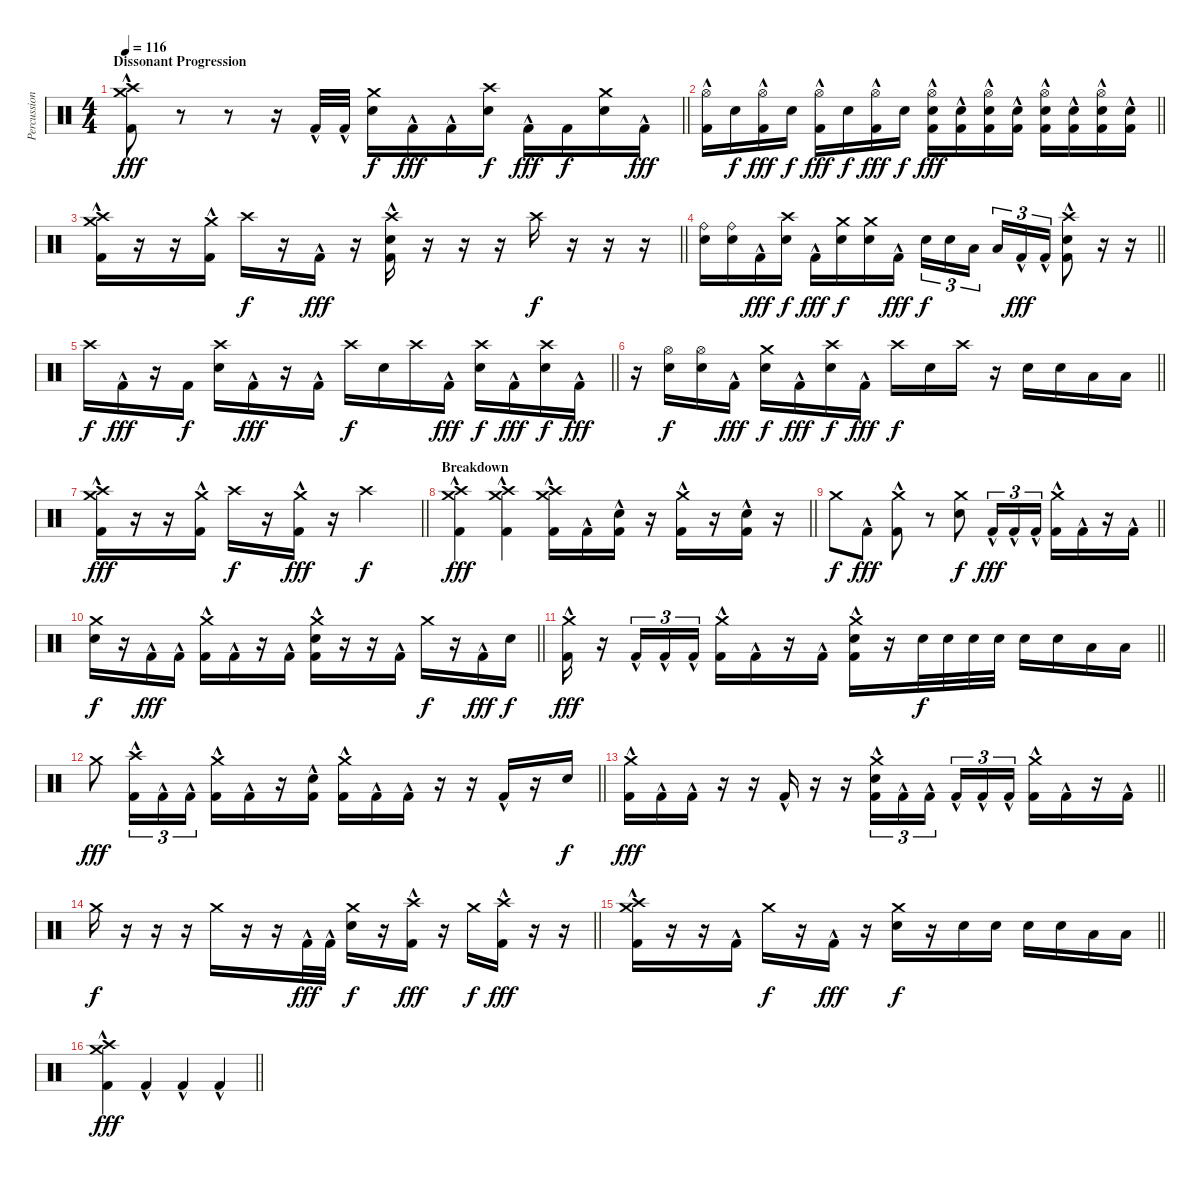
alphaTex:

\track ("Percussion" "Percussion") {instrument percussion}
\staff {score}
\articulation defaults
\ts (4 4)
\section ("" "Dissonant Progression")
\tempo 116
\clef neutral
\barLineRight lightlight
\ks c
("Crash high (hit)" "Crash medium (hit)" "Kick (hit) 2"{hac}).8{dy fff} r.8 r.8 r.16 "Kick (hit) 2"{hac}.32 "Kick (hit) 2"{hac}.32 ("Crash medium (hit)" "Electric Snare (hit)").16{dy f} "Kick (hit) 2"{hac}.16{dy fff} "Kick (hit) 2"{hac}.16 ("Crash high (hit)" "Electric Snare (hit)").16{dy f} "Kick (hit) 2"{hac}.16{dy fff} "Kick (hit) 2".16{dy f} ("Crash medium (hit)" "Electric Snare (hit)").16 "Kick (hit) 2"{hac}.16{dy fff} |
\barLineRight lightlight
("Hi-Hat (open)" "Kick (hit) 2"{hac}).16 "Electric Snare (hit)".16{dy f} ("Hi-Hat (open)" "Kick (hit) 2"{hac}).16{dy fff} "Electric Snare (hit)".16{dy f} ("Hi-Hat (open)" "Kick (hit) 2"{hac}).16{dy fff} "Electric Snare (hit)".16{dy f} ("Hi-Hat (open)" "Kick (hit) 2"{hac}).16{dy fff} "Electric Snare (hit)".16{dy f} ("Hi-Hat (open)" "Electric Snare (hit)" "Kick (hit) 2"{hac}).16{dy fff} ("Electric Snare (hit)" "Kick (hit) 2"{hac}).16 ("Hi-Hat (open)" "Electric Snare (hit)" "Kick (hit) 2"{hac}).16 ("Electric Snare (hit)" "Kick (hit) 2"{hac}).16 ("Hi-Hat (open)" "Electric Snare (hit)" "Kick (hit) 2"{hac}).16 ("Electric Snare (hit)" "Kick (hit) 2"{hac}).16 ("Hi-Hat (open)" "Electric Snare (hit)" "Kick (hit) 2"{hac}).16 ("Electric Snare (hit)" "Kick (hit) 2"{hac}).16 |
\barLineRight lightlight
("Crash medium (hit)" "Crash high (hit)" "Kick (hit) 2"{hac}).16 r.16 r.16 ("Crash medium (hit)" "Kick (hit) 2"{hac}).16 "Crash high (hit)".16{dy f} r.16 "Kick (hit) 2"{hac}.16{dy fff} r.16 ("Electric Snare (hit)" "Crash high (hit)" "Kick (hit) 2"{hac}).16 r.16 r.16 r.16 "Crash high (hit)".16{dy f} r.16 r.16 r.16 |
\barLineRight lightlight
("Ride (bell)" "Electric Snare (hit)").16 ("Ride (bell)" "Electric Snare (hit)").16 "Kick (hit) 2"{hac}.16{dy fff} ("Crash high (hit)" "Electric Snare (hit)").16{dy f} "Kick (hit) 2"{hac}.16{dy fff} ("Crash medium (hit)" "Electric Snare (hit)").16{dy f} ("Crash medium (hit)" "Electric Snare (hit)").16 "Kick (hit) 2"{hac}.16{dy fff} "Electric Snare (hit)".16{tu (3 2) dy f} "Electric Snare (hit)".16{tu (3 2)} "Low Tom (hit)".16{tu (3 2) beam splitsecondary} "Low Tom (hit)".16{tu (3 2)} "Kick (hit) 2"{hac}.16{tu (3 2) dy fff} "Kick (hit) 2"{hac}.16{tu (3 2)} ("Crash high (hit)" "Electric Snare (hit)" "Kick (hit) 2"{hac}).8 r.16 r.16 |
\barLineRight lightlight "Crash high (hit)".16{dy f} "Kick (hit) 2"{hac}.16{dy fff}
r.16 "Kick (hit) 2".16{dy f} ("Crash high (hit)" "Electric Snare (hit)").16 "Kick (hit) 2"{hac}.16{dy fff} r.16 "Kick (hit) 2"{hac}.16 "Crash high (hit)".16{dy f} "Electric Snare (hit)".16 "Crash high (hit)".16 "Kick (hit) 2"{hac}.16{dy fff} ("Crash high (hit)" "Electric Snare (hit)").16{dy f} "Kick (hit) 2"{hac}.16{dy fff} ("Crash high (hit)" "Electric Snare (hit)").16{dy f} "Kick (hit) 2"{hac}.16{dy fff} |
\barLineRight lightlight
r.16 ("Hi-Hat (open)" "Electric Snare (hit)").16{dy f} ("Hi-Hat (open)" "Electric Snare (hit)").16 "Kick (hit) 2"{hac}.16{dy fff} ("Crash medium (hit)" "Electric Snare (hit)").16{dy f} "Kick (hit) 2"{hac}.16{dy fff} ("Crash high (hit)" "Electric Snare (hit)").16{dy f} "Kick (hit) 2"{hac}.16{dy fff} "Crash high (hit)".16{dy f} "Electric Snare (hit)".16 "Crash high (hit)".16 r.16 "Electric Snare (hit)".16 "Electric Snare (hit)".16 "Low Tom (hit)".16 "Low Tom (hit)".16 |
\barLineRight lightlight
("Crash high (hit)" "Crash medium (hit)" "Kick (hit) 2"{hac}).16{dy fff} r.16 r.16 ("Crash medium (hit)" "Kick (hit) 2"{hac}).16 "Crash high (hit)".16{dy f} r.16 ("Crash medium (hit)" "Kick (hit) 2"{hac}).16{dy fff} r.16 "Crash high (hit)".2{dy f} |
\section ("" "Breakdown")
\barLineRight lightlight
("Kick (hit) 2"{hac} "Crash high (hit)" "Crash medium (hit)").4{dy fff} ("Kick (hit) 2"{hac} "Crash high (hit)" "Crash medium (hit)").4 ("Kick (hit) 2"{hac} "Crash high (hit)" "Crash medium (hit)").16 "Kick (hit) 2"{hac}.16 ("Kick (hit) 2"{hac} "Electric Snare (hit)").16 r.16 ("Kick (hit) 2"{hac} "Crash medium (hit)").16 r.16 ("Kick (hit) 2"{hac} "Electric Snare (hit)").16 r.16 |
\barLineRight lightlight "Crash medium (hit)".8{dy f} "Kick (hit) 2"{hac}.8{dy fff}
("Kick (hit) 2"{hac} "Crash medium (hit)").8 r.8 ("Crash medium (hit)" "Electric Snare (hit)").8{dy f} "Kick (hit) 2"{hac}.16{tu (3 2) dy fff} "Kick (hit) 2"{hac}.16{tu (3 2)} "Kick (hit) 2"{hac}.16{tu (3 2)} ("Kick (hit) 2"{hac} "Crash medium (hit)").16 "Kick (hit) 2"{hac}.16 r.16 "Kick (hit) 2"{hac}.16 |
\barLineRight lightlight
("Electric Snare (hit)" "Crash medium (hit)").16{dy f} r.16 "Kick (hit) 2"{hac}.16{dy fff} "Kick (hit) 2"{hac}.16 ("Kick (hit) 2"{hac} "Crash medium (hit)").16 "Kick (hit) 2"{hac}.16 r.16 "Kick (hit) 2"{hac}.16 ("Kick (hit) 2"{hac} "Crash medium (hit)" "Electric Snare (hit)").16 r.16 r.16 "Kick (hit) 2"{hac}.16 "Crash medium (hit)".16{dy f} r.16 "Kick (hit) 2"{hac}.16{dy fff} "Electric Snare (hit)".16{dy f} |
\barLineRight lightlight
("Crash medium (hit)" "Kick (hit) 2"{hac}).16{dy fff} r.16 "Kick (hit) 2"{hac}.16{tu (3 2)} "Kick (hit) 2"{hac}.16{tu (3 2)} "Kick (hit) 2"{hac}.16{tu (3 2)} ("Crash medium (hit)" "Kick (hit) 2"{hac}).16 "Kick (hit) 2"{hac}.16 r.16 "Kick (hit) 2"{hac}.16 ("Crash medium (hit)" "Electric Snare (hit)" "Kick (hit) 2"{hac}).16 r.16 "Electric Snare (hit)".32{dy f} "Electric Snare (hit)".32 "Electric Snare (hit)".32 "Electric Snare (hit)".32 "Electric Snare (hit)".16 "Electric Snare (hit)".16 "Low Tom (hit)".16 "Low Tom (hit)".16 |
\barLineRight lightlight "Crash medium (hit)".8{dy fff}
("Crash high (hit)" "Kick (hit) 2"{hac}).16{tu (3 2)} "Kick (hit) 2"{hac}.16{tu (3 2)} "Kick (hit) 2"{hac}.16{tu (3 2)} ("Crash medium (hit)" "Kick (hit) 2"{hac}).16 "Kick (hit) 2"{hac}.16 r.16 ("Electric Snare (hit)" "Kick (hit) 2"{hac}).16 ("Crash medium (hit)" "Kick (hit) 2"{hac}).16 "Kick (hit) 2"{hac}.16 "Kick (hit) 2"{hac}.16 r.16 r.16 "Kick (hit) 2"{hac}.16 r.16 "Electric Snare (hit)".16{dy f} |
\barLineRight lightlight
("Crash medium (hit)" "Kick (hit) 2"{hac}).16{dy fff} "Kick (hit) 2"{hac}.16 "Kick (hit) 2"{hac}.16 r.16 r.16 "Kick (hit) 2"{hac}.16 r.16 r.16 ("Crash medium (hit)" "Electric Snare (hit)" "Kick (hit) 2"{hac}).16{tu (3 2)} "Kick (hit) 2"{hac}.16{tu (3 2)} "Kick (hit) 2"{hac}.16{tu (3 2) beam splitsecondary} "Kick (hit) 2"{hac}.16{tu (3 2)} "Kick (hit) 2"{hac}.16{tu (3 2)} "Kick (hit) 2"{hac}.16{tu (3 2)} ("Crash medium (hit)" "Kick (hit) 2"{hac}).16 "Kick (hit) 2"{hac}.16 r.16 "Kick (hit) 2"{hac}.16 |
\barLineRight lightlight "Crash medium (hit)".16{dy f}
r.16 r.16 r.16 "Crash medium (hit)".16 r.16 r.16 "Kick (hit) 2"{hac}.32{dy fff} "Kick (hit) 2"{hac}.32 ("Electric Snare (hit)" "Crash medium (hit)").16{dy f} r.16 ("Crash high (hit)" "Kick (hit) 2"{hac}).16{dy fff} r.16 "Crash medium (hit)".16{dy f} ("Crash high (hit)" "Kick (hit) 2"{hac}).16{dy fff} r.16 r.16 |
\barLineRight lightlight
("Crash medium (hit)" "Crash high (hit)" "Kick (hit) 2"{hac}).16 r.16 r.16 "Kick (hit) 2"{hac}.16 "Crash medium (hit)".16{dy f} r.16 "Kick (hit) 2"{hac}.16{dy fff} r.16 ("Crash medium (hit)" "Electric Snare (hit)").16{dy f} r.16 "Electric Snare (hit)".16 "Electric Snare (hit)".16 "Electric Snare (hit)".16 "Electric Snare (hit)".16 "Low Tom (hit)".16 "Low Tom (hit)".16 |
\barLineRight lightlight
("Kick (hit) 2"{hac} "Crash high (hit)" "Crash medium (hit)").4{dy fff} "Kick (hit) 2"{hac}.4 "Kick (hit) 2"{hac}.4 "Kick (hit) 2"{hac}.4
